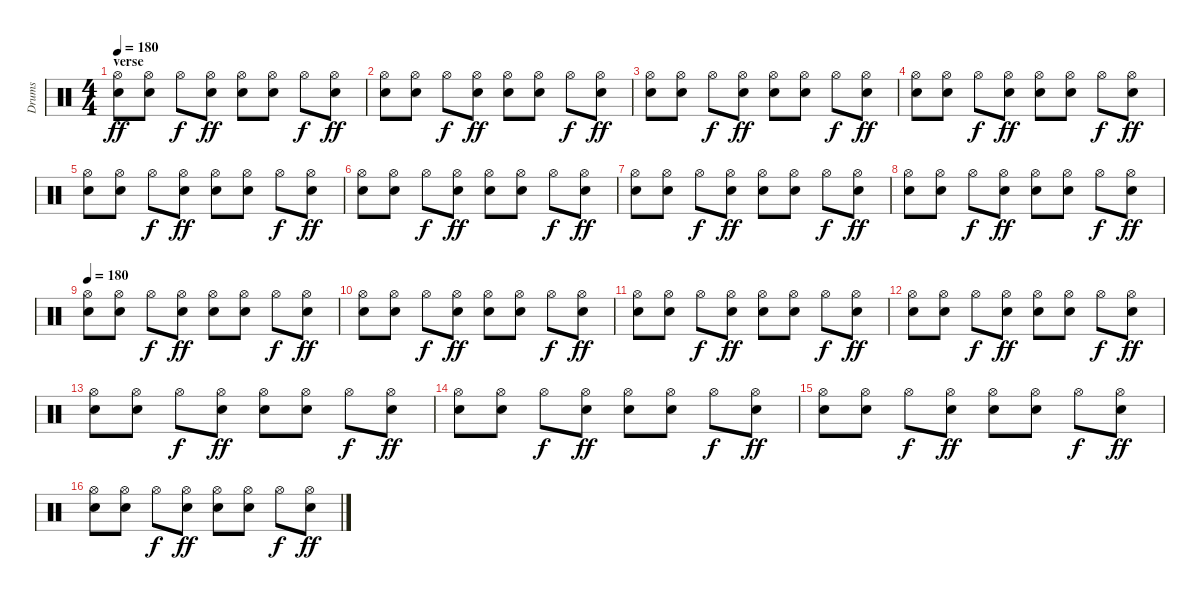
\track ("Drums" "Drums") {instrument percussion}
\staff {score}
\articulation defaults
\ts (4 4)
\section ("" "verse")
\tempo 180
\clef neutral
\ks c
("Hi-Hat (open)" "Electric Snare (hit)").8{dy ff} ("Hi-Hat (open)" "Electric Snare (hit)").8 "Hi-Hat (open)".8{dy f} ("Hi-Hat (open)" "Electric Snare (hit)").8{dy ff} ("Hi-Hat (open)" "Electric Snare (hit)").8 ("Hi-Hat (open)" "Electric Snare (hit)").8 "Hi-Hat (open)".8{dy f} ("Hi-Hat (open)" "Electric Snare (hit)").8{dy ff} |
("Hi-Hat (open)" "Electric Snare (hit)").8 ("Hi-Hat (open)" "Electric Snare (hit)").8 "Hi-Hat (open)".8{dy f} ("Hi-Hat (open)" "Electric Snare (hit)").8{dy ff} ("Hi-Hat (open)" "Electric Snare (hit)").8 ("Hi-Hat (open)" "Electric Snare (hit)").8 "Hi-Hat (open)".8{dy f} ("Hi-Hat (open)" "Electric Snare (hit)").8{dy ff} |
("Hi-Hat (open)" "Electric Snare (hit)").8 ("Hi-Hat (open)" "Electric Snare (hit)").8 "Hi-Hat (open)".8{dy f} ("Hi-Hat (open)" "Electric Snare (hit)").8{dy ff} ("Hi-Hat (open)" "Electric Snare (hit)").8 ("Hi-Hat (open)" "Electric Snare (hit)").8 "Hi-Hat (open)".8{dy f} ("Hi-Hat (open)" "Electric Snare (hit)").8{dy ff} |
("Hi-Hat (open)" "Electric Snare (hit)").8 ("Hi-Hat (open)" "Electric Snare (hit)").8 "Hi-Hat (open)".8{dy f} ("Hi-Hat (open)" "Electric Snare (hit)").8{dy ff} ("Hi-Hat (open)" "Electric Snare (hit)").8 ("Hi-Hat (open)" "Electric Snare (hit)").8 "Hi-Hat (open)".8{dy f} ("Hi-Hat (open)" "Electric Snare (hit)").8{dy ff} |
("Hi-Hat (open)" "Electric Snare (hit)").8 ("Hi-Hat (open)" "Electric Snare (hit)").8 "Hi-Hat (open)".8{dy f} ("Hi-Hat (open)" "Electric Snare (hit)").8{dy ff} ("Hi-Hat (open)" "Electric Snare (hit)").8 ("Hi-Hat (open)" "Electric Snare (hit)").8 "Hi-Hat (open)".8{dy f} ("Hi-Hat (open)" "Electric Snare (hit)").8{dy ff} |
("Hi-Hat (open)" "Electric Snare (hit)").8 ("Hi-Hat (open)" "Electric Snare (hit)").8 "Hi-Hat (open)".8{dy f} ("Hi-Hat (open)" "Electric Snare (hit)").8{dy ff} ("Hi-Hat (open)" "Electric Snare (hit)").8 ("Hi-Hat (open)" "Electric Snare (hit)").8 "Hi-Hat (open)".8{dy f} ("Hi-Hat (open)" "Electric Snare (hit)").8{dy ff} |
("Hi-Hat (open)" "Electric Snare (hit)").8 ("Hi-Hat (open)" "Electric Snare (hit)").8 "Hi-Hat (open)".8{dy f} ("Hi-Hat (open)" "Electric Snare (hit)").8{dy ff} ("Hi-Hat (open)" "Electric Snare (hit)").8 ("Hi-Hat (open)" "Electric Snare (hit)").8 "Hi-Hat (open)".8{dy f} ("Hi-Hat (open)" "Electric Snare (hit)").8{dy ff} |
("Hi-Hat (open)" "Electric Snare (hit)").8 ("Hi-Hat (open)" "Electric Snare (hit)").8 "Hi-Hat (open)".8{dy f} ("Hi-Hat (open)" "Electric Snare (hit)").8{dy ff} ("Hi-Hat (open)" "Electric Snare (hit)").8 ("Hi-Hat (open)" "Electric Snare (hit)").8 "Hi-Hat (open)".8{dy f} ("Hi-Hat (open)" "Electric Snare (hit)").8{dy ff} |
\tempo 180
("Hi-Hat (open)" "Electric Snare (hit)").8 ("Hi-Hat (open)" "Electric Snare (hit)").8 "Hi-Hat (open)".8{dy f} ("Hi-Hat (open)" "Electric Snare (hit)").8{dy ff} ("Hi-Hat (open)" "Electric Snare (hit)").8 ("Hi-Hat (open)" "Electric Snare (hit)").8 "Hi-Hat (open)".8{dy f} ("Hi-Hat (open)" "Electric Snare (hit)").8{dy ff} |
("Hi-Hat (open)" "Electric Snare (hit)").8 ("Hi-Hat (open)" "Electric Snare (hit)").8 "Hi-Hat (open)".8{dy f} ("Hi-Hat (open)" "Electric Snare (hit)").8{dy ff} ("Hi-Hat (open)" "Electric Snare (hit)").8 ("Hi-Hat (open)" "Electric Snare (hit)").8 "Hi-Hat (open)".8{dy f} ("Hi-Hat (open)" "Electric Snare (hit)").8{dy ff} |
("Hi-Hat (open)" "Electric Snare (hit)").8 ("Hi-Hat (open)" "Electric Snare (hit)").8 "Hi-Hat (open)".8{dy f} ("Hi-Hat (open)" "Electric Snare (hit)").8{dy ff} ("Hi-Hat (open)" "Electric Snare (hit)").8 ("Hi-Hat (open)" "Electric Snare (hit)").8 "Hi-Hat (open)".8{dy f} ("Hi-Hat (open)" "Electric Snare (hit)").8{dy ff} |
("Hi-Hat (open)" "Electric Snare (hit)").8 ("Hi-Hat (open)" "Electric Snare (hit)").8 "Hi-Hat (open)".8{dy f} ("Hi-Hat (open)" "Electric Snare (hit)").8{dy ff} ("Hi-Hat (open)" "Electric Snare (hit)").8 ("Hi-Hat (open)" "Electric Snare (hit)").8 "Hi-Hat (open)".8{dy f} ("Hi-Hat (open)" "Electric Snare (hit)").8{dy ff} |
("Hi-Hat (open)" "Electric Snare (hit)").8 ("Hi-Hat (open)" "Electric Snare (hit)").8 "Hi-Hat (open)".8{dy f} ("Hi-Hat (open)" "Electric Snare (hit)").8{dy ff} ("Hi-Hat (open)" "Electric Snare (hit)").8 ("Hi-Hat (open)" "Electric Snare (hit)").8 "Hi-Hat (open)".8{dy f} ("Hi-Hat (open)" "Electric Snare (hit)").8{dy ff} |
("Hi-Hat (open)" "Electric Snare (hit)").8 ("Hi-Hat (open)" "Electric Snare (hit)").8 "Hi-Hat (open)".8{dy f} ("Hi-Hat (open)" "Electric Snare (hit)").8{dy ff} ("Hi-Hat (open)" "Electric Snare (hit)").8 ("Hi-Hat (open)" "Electric Snare (hit)").8 "Hi-Hat (open)".8{dy f} ("Hi-Hat (open)" "Electric Snare (hit)").8{dy ff} |
("Hi-Hat (open)" "Electric Snare (hit)").8 ("Hi-Hat (open)" "Electric Snare (hit)").8 "Hi-Hat (open)".8{dy f} ("Hi-Hat (open)" "Electric Snare (hit)").8{dy ff} ("Hi-Hat (open)" "Electric Snare (hit)").8 ("Hi-Hat (open)" "Electric Snare (hit)").8 "Hi-Hat (open)".8{dy f} ("Hi-Hat (open)" "Electric Snare (hit)").8{dy ff} |
("Hi-Hat (open)" "Electric Snare (hit)").8 ("Hi-Hat (open)" "Electric Snare (hit)").8 "Hi-Hat (open)".8{dy f} ("Hi-Hat (open)" "Electric Snare (hit)").8{dy ff} ("Hi-Hat (open)" "Electric Snare (hit)").8 ("Hi-Hat (open)" "Electric Snare (hit)").8 "Hi-Hat (open)".8{dy f} ("Hi-Hat (open)" "Electric Snare (hit)").8{dy ff}
